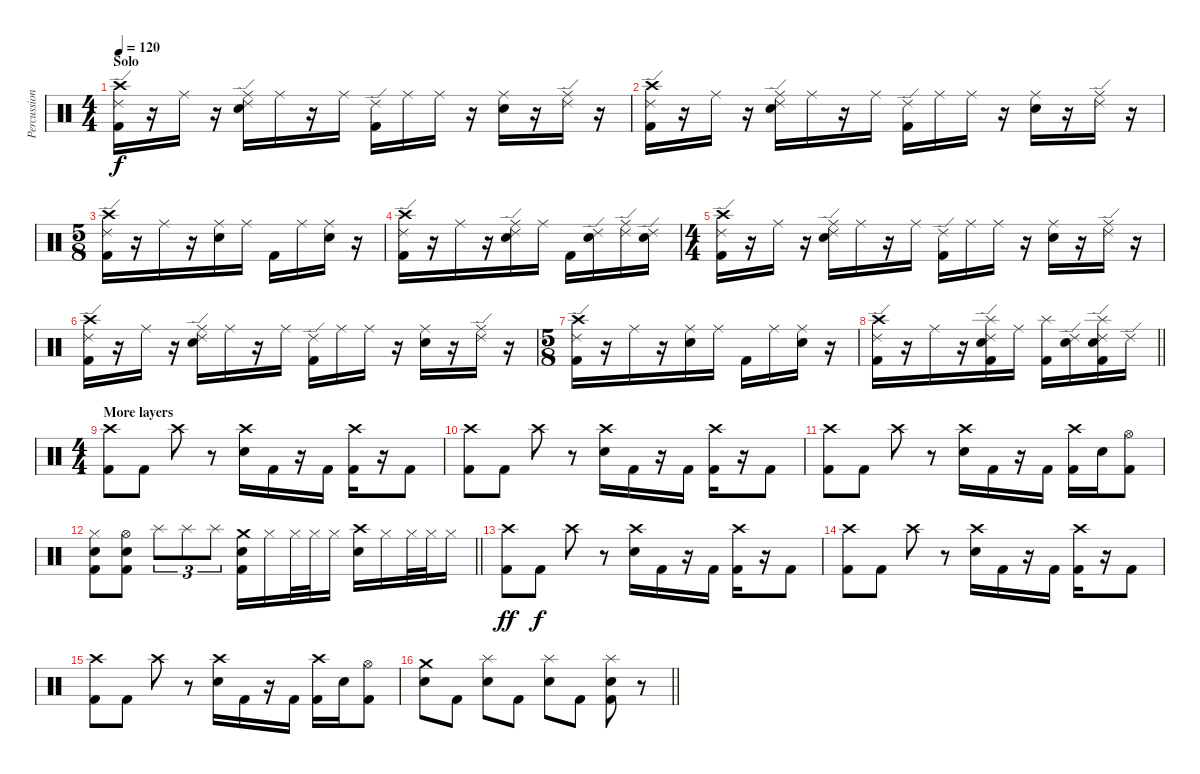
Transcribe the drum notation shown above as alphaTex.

\track ("Percussion" "Percussion") {instrument percussion}
\staff {score}
\articulation defaults
\ts (4 4)
\section ("" "Solo")
\tempo 120
\clef neutral
\ks c
("Crash high (hit)" "Ride (edge) 2" "Kick (hit) 2").16{dy f} r.16 "Ride (middle)".16 r.16 ("Ride (middle)" "Ride (edge) 2" "Electric Snare (hit)").16 "Ride (middle)".16 r.16 "Ride (middle)".16 ("Ride (edge) 2" "Kick (hit) 2").16 "Ride (middle)".16 "Ride (middle)".16 r.16 ("Ride (middle)" "Electric Snare (hit)").16 r.16 ("Ride (middle)" "Ride (edge) 2").16 r.16 |
("Crash high (hit)" "Ride (edge) 2" "Kick (hit) 2").16 r.16 "Ride (middle)".16 r.16 ("Ride (middle)" "Ride (edge) 2" "Electric Snare (hit)").16 "Ride (middle)".16 r.16 "Ride (middle)".16 ("Ride (edge) 2" "Kick (hit) 2").16 "Ride (middle)".16 "Ride (middle)".16 r.16 ("Ride (middle)" "Electric Snare (hit)").16 r.16 ("Ride (middle)" "Ride (edge) 2").16 r.16 |
\ts (5 8)
("Crash high (hit)" "Ride (edge) 2" "Kick (hit) 2").16 r.16 "Ride (middle)".16 r.16 ("Ride (middle)" "Electric Snare (hit)").16 "Ride (middle)".16 "Kick (hit) 2".16 "Ride (middle)".16 ("Ride (middle)" "Electric Snare (hit)").16 r.16 |
("Crash high (hit)" "Ride (edge) 2" "Kick (hit) 2").16 r.16 "Ride (middle)".16 r.16 ("Ride (middle)" "Ride (edge) 2" "Electric Snare (hit)").16 "Ride (middle)".16 "Kick (hit) 2".16 ("Ride (edge) 2" "Electric Snare (hit)").16 ("Ride (middle)" "Ride (edge) 2").16 ("Ride (edge) 2" "Electric Snare (hit)").16 |
\ts (4 4)
("Crash high (hit)" "Ride (edge) 2" "Kick (hit) 2").16 r.16 "Ride (middle)".16 r.16 ("Ride (middle)" "Ride (edge) 2" "Electric Snare (hit)").16 "Ride (middle)".16 r.16 "Ride (middle)".16 ("Ride (edge) 2" "Kick (hit) 2").16 "Ride (middle)".16 "Ride (middle)".16 r.16 ("Ride (middle)" "Electric Snare (hit)").16 r.16 ("Ride (middle)" "Ride (edge) 2").16 r.16 |
("Crash high (hit)" "Ride (edge) 2" "Kick (hit) 2").16 r.16 "Ride (middle)".16 r.16 ("Ride (middle)" "Ride (edge) 2" "Electric Snare (hit)").16 "Ride (middle)".16 r.16 "Ride (middle)".16 ("Ride (edge) 2" "Kick (hit) 2").16 "Ride (middle)".16 "Ride (middle)".16 r.16 ("Ride (middle)" "Electric Snare (hit)").16 r.16 ("Ride (middle)" "Ride (edge) 2").16 r.16 |
\ts (5 8)
("Crash high (hit)" "Ride (edge) 2" "Kick (hit) 2").16 r.16 "Ride (middle)".16 r.16 ("Ride (middle)" "Electric Snare (hit)").16 "Ride (middle)".16 "Kick (hit) 2".16 "Ride (middle)".16 ("Ride (middle)" "Electric Snare (hit)").16 r.16 |
\barLineRight lightlight
("Crash high (hit)" "Ride (edge) 2" "Kick (hit) 2").16 r.16 "Ride (middle)".16 r.16 ("Splash (hit)" "Ride (edge) 2" "Electric Snare (hit)" "Kick (hit) 2").16 "Ride (middle)".16 ("Splash (hit)" "Kick (hit) 2").16 ("Ride (edge) 2" "Electric Snare (hit)").16 ("Splash (hit)" "Ride (edge) 2" "Electric Snare (hit)" "Kick (hit) 2").16 "Ride (edge) 2".16 |
\ts (4 4)
\section ("" "More layers")
("Crash high (hit)" "Kick (hit) 2").8 "Kick (hit) 2".8 "Crash high (hit)".8 r.8 ("Crash high (hit)" "Electric Snare (hit)").16 "Kick (hit) 2".16 r.16 "Kick (hit) 2".16 ("Crash high (hit)" "Kick (hit) 2").16 r.16 "Kick (hit) 2".8 |
("Crash high (hit)" "Kick (hit) 2").8 "Kick (hit) 2".8 "Crash high (hit)".8 r.8 ("Crash high (hit)" "Electric Snare (hit)").16 "Kick (hit) 2".16 r.16 "Kick (hit) 2".16 ("Crash high (hit)" "Kick (hit) 2").16 r.16 "Kick (hit) 2".8 |
("Crash high (hit)" "Kick (hit) 2").8 "Kick (hit) 2".8 "Crash high (hit)".8 r.8 ("Crash high (hit)" "Electric Snare (hit)").16 "Kick (hit) 2".16 r.16 "Kick (hit) 2".16 ("Crash high (hit)" "Kick (hit) 2").16 "Electric Snare (hit)".16 ("Hi-Hat (open)" "Kick (hit) 2").8 |
\barLineRight lightlight
("Hi-Hat (closed)" "Electric Snare (hit)" "Kick (hit) 2").8 ("Hi-Hat (open)" "Electric Snare (hit)" "Kick (hit) 2").8 "Splash (hit)".8{tu (3 2)} "Splash (hit)".8{tu (3 2)} "Splash (hit)".8{tu (3 2)} ("Crash medium (hit)" "Electric Snare (hit)" "Kick (hit) 2").16 "Hi-Hat (closed)".16 "Hi-Hat (closed)".32 "Hi-Hat (closed)".32 "Hi-Hat (closed)".16 ("Crash high (hit)" "Electric Snare (hit)").16 "Hi-Hat (closed)".16 "Hi-Hat (closed)".32 "Hi-Hat (closed)".32 "Hi-Hat (closed)".16 |
("Crash high (hit)" "Kick (hit) 2").8{dy ff} "Kick (hit) 2".8{dy f} "Crash high (hit)".8 r.8 ("Crash high (hit)" "Electric Snare (hit)").16 "Kick (hit) 2".16 r.16 "Kick (hit) 2".16 ("Crash high (hit)" "Kick (hit) 2").16 r.16 "Kick (hit) 2".8 |
("Crash high (hit)" "Kick (hit) 2").8 "Kick (hit) 2".8 "Crash high (hit)".8 r.8 ("Crash high (hit)" "Electric Snare (hit)").16 "Kick (hit) 2".16 r.16 "Kick (hit) 2".16 ("Crash high (hit)" "Kick (hit) 2").16 r.16 "Kick (hit) 2".8 |
("Crash high (hit)" "Kick (hit) 2").8 "Kick (hit) 2".8 "Crash high (hit)".8 r.8 ("Crash high (hit)" "Electric Snare (hit)").16 "Kick (hit) 2".16 r.16 "Kick (hit) 2".16 ("Crash high (hit)" "Kick (hit) 2").16 "Electric Snare (hit)".16 ("Hi-Hat (open)" "Kick (hit) 2").8 |
\barLineRight lightlight
("Crash medium (hit)" "Electric Snare (hit)").8 "Kick (hit) 2".8 ("Splash (hit)" "Electric Snare (hit)").8 "Kick (hit) 2".8 ("Splash (hit)" "Electric Snare (hit)").8 "Kick (hit) 2".8 ("Splash (hit)" "Electric Snare (hit)" "Kick (hit) 2").8 r.8
